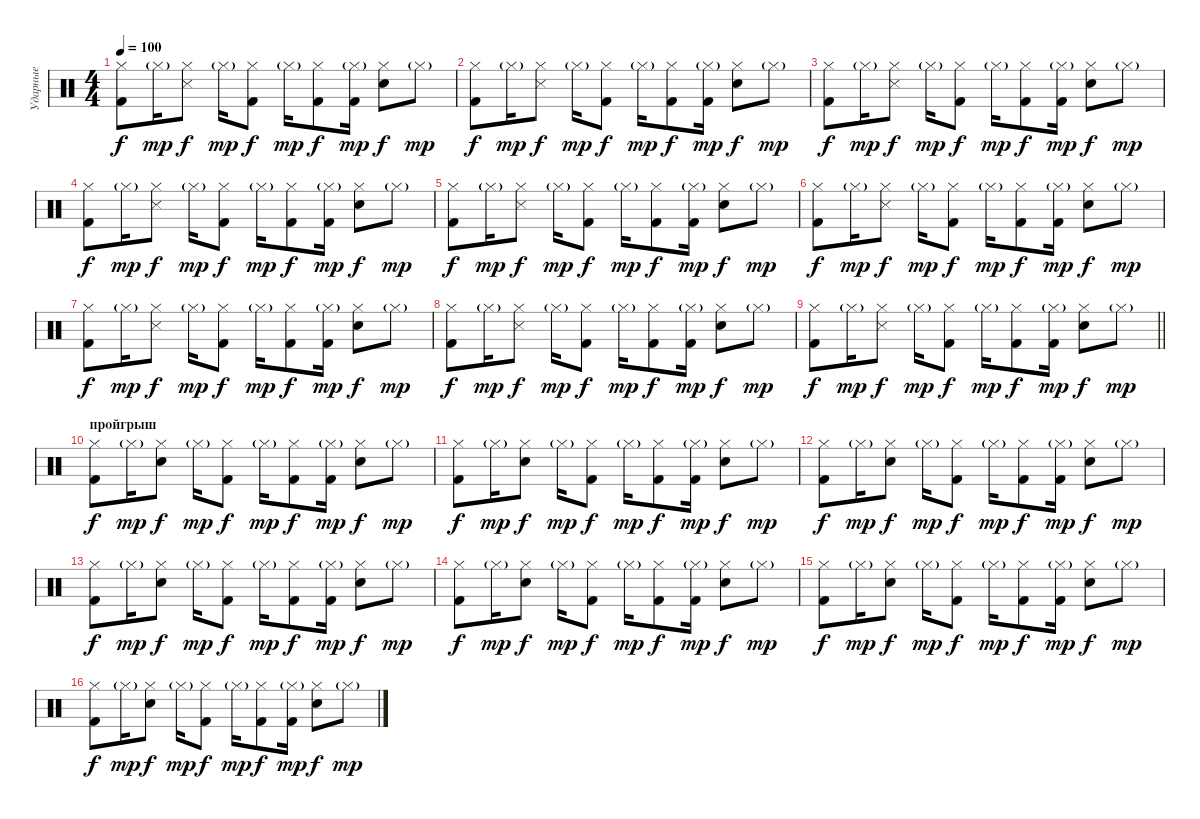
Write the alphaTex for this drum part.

\track ("Ударные" "Ударные") {instrument percussion}
\staff {score}
\articulation defaults
\ts (4 4)
\tempo 100
\clef neutral
\ks c
("Kick (hit) 2" "Hi-Hat (closed)").8{dy f} "Hi-Hat (closed)"{g}.16{dy mp} ("Snare (side stick) 3" "Hi-Hat (closed)").8{dy f} "Hi-Hat (closed)"{g}.16{dy mp} ("Kick (hit) 2" "Hi-Hat (closed)").8{dy f} "Hi-Hat (closed)"{g}.16{dy mp} ("Kick (hit) 2" "Hi-Hat (closed)").8{dy f} ("Kick (hit) 2" "Hi-Hat (closed)"{g}).16{dy mp} ("Snare (hit) 2" "Hi-Hat (closed)").8{dy f} "Hi-Hat (closed)"{g}.8{dy mp} |
("Kick (hit) 2" "Hi-Hat (closed)").8{dy f} "Hi-Hat (closed)"{g}.16{dy mp} ("Snare (side stick) 3" "Hi-Hat (closed)").8{dy f} "Hi-Hat (closed)"{g}.16{dy mp} ("Kick (hit) 2" "Hi-Hat (closed)").8{dy f} "Hi-Hat (closed)"{g}.16{dy mp} ("Kick (hit) 2" "Hi-Hat (closed)").8{dy f} ("Kick (hit) 2" "Hi-Hat (closed)"{g}).16{dy mp} ("Snare (hit) 2" "Hi-Hat (closed)").8{dy f} "Hi-Hat (closed)"{g}.8{dy mp} |
("Kick (hit) 2" "Hi-Hat (closed)").8{dy f} "Hi-Hat (closed)"{g}.16{dy mp} ("Snare (side stick) 3" "Hi-Hat (closed)").8{dy f} "Hi-Hat (closed)"{g}.16{dy mp} ("Kick (hit) 2" "Hi-Hat (closed)").8{dy f} "Hi-Hat (closed)"{g}.16{dy mp} ("Kick (hit) 2" "Hi-Hat (closed)").8{dy f} ("Kick (hit) 2" "Hi-Hat (closed)"{g}).16{dy mp} ("Snare (hit) 2" "Hi-Hat (closed)").8{dy f} "Hi-Hat (closed)"{g}.8{dy mp} |
("Kick (hit) 2" "Hi-Hat (closed)").8{dy f} "Hi-Hat (closed)"{g}.16{dy mp} ("Snare (side stick) 3" "Hi-Hat (closed)").8{dy f} "Hi-Hat (closed)"{g}.16{dy mp} ("Kick (hit) 2" "Hi-Hat (closed)").8{dy f} "Hi-Hat (closed)"{g}.16{dy mp} ("Kick (hit) 2" "Hi-Hat (closed)").8{dy f} ("Kick (hit) 2" "Hi-Hat (closed)"{g}).16{dy mp} ("Snare (hit) 2" "Hi-Hat (closed)").8{dy f} "Hi-Hat (closed)"{g}.8{dy mp} |
("Kick (hit) 2" "Hi-Hat (closed)").8{dy f} "Hi-Hat (closed)"{g}.16{dy mp} ("Snare (side stick) 3" "Hi-Hat (closed)").8{dy f} "Hi-Hat (closed)"{g}.16{dy mp} ("Kick (hit) 2" "Hi-Hat (closed)").8{dy f} "Hi-Hat (closed)"{g}.16{dy mp} ("Kick (hit) 2" "Hi-Hat (closed)").8{dy f} ("Kick (hit) 2" "Hi-Hat (closed)"{g}).16{dy mp} ("Snare (hit) 2" "Hi-Hat (closed)").8{dy f} "Hi-Hat (closed)"{g}.8{dy mp} |
("Kick (hit) 2" "Hi-Hat (closed)").8{dy f} "Hi-Hat (closed)"{g}.16{dy mp} ("Snare (side stick) 3" "Hi-Hat (closed)").8{dy f} "Hi-Hat (closed)"{g}.16{dy mp} ("Kick (hit) 2" "Hi-Hat (closed)").8{dy f} "Hi-Hat (closed)"{g}.16{dy mp} ("Kick (hit) 2" "Hi-Hat (closed)").8{dy f} ("Kick (hit) 2" "Hi-Hat (closed)"{g}).16{dy mp} ("Snare (hit) 2" "Hi-Hat (closed)").8{dy f} "Hi-Hat (closed)"{g}.8{dy mp} |
("Kick (hit) 2" "Hi-Hat (closed)").8{dy f} "Hi-Hat (closed)"{g}.16{dy mp} ("Snare (side stick) 3" "Hi-Hat (closed)").8{dy f} "Hi-Hat (closed)"{g}.16{dy mp} ("Kick (hit) 2" "Hi-Hat (closed)").8{dy f} "Hi-Hat (closed)"{g}.16{dy mp} ("Kick (hit) 2" "Hi-Hat (closed)").8{dy f} ("Kick (hit) 2" "Hi-Hat (closed)"{g}).16{dy mp} ("Snare (hit) 2" "Hi-Hat (closed)").8{dy f} "Hi-Hat (closed)"{g}.8{dy mp} |
("Kick (hit) 2" "Hi-Hat (closed)").8{dy f} "Hi-Hat (closed)"{g}.16{dy mp} ("Snare (side stick) 3" "Hi-Hat (closed)").8{dy f} "Hi-Hat (closed)"{g}.16{dy mp} ("Kick (hit) 2" "Hi-Hat (closed)").8{dy f} "Hi-Hat (closed)"{g}.16{dy mp} ("Kick (hit) 2" "Hi-Hat (closed)").8{dy f} ("Kick (hit) 2" "Hi-Hat (closed)"{g}).16{dy mp} ("Snare (hit) 2" "Hi-Hat (closed)").8{dy f} "Hi-Hat (closed)"{g}.8{dy mp} |
\barLineRight lightlight
("Kick (hit) 2" "Hi-Hat (closed)").8{dy f} "Hi-Hat (closed)"{g}.16{dy mp} ("Snare (side stick) 3" "Hi-Hat (closed)").8{dy f} "Hi-Hat (closed)"{g}.16{dy mp} ("Kick (hit) 2" "Hi-Hat (closed)").8{dy f} "Hi-Hat (closed)"{g}.16{dy mp} ("Kick (hit) 2" "Hi-Hat (closed)").8{dy f} ("Kick (hit) 2" "Hi-Hat (closed)"{g}).16{dy mp} ("Snare (hit) 2" "Hi-Hat (closed)").8{dy f} "Hi-Hat (closed)"{g}.8{dy mp} |
\section ("" "пройгрыш")
("Kick (hit) 2" "Hi-Hat (closed)").8{dy f} "Hi-Hat (closed)"{g}.16{dy mp} ("Snare (hit) 2" "Hi-Hat (closed)").8{dy f} "Hi-Hat (closed)"{g}.16{dy mp} ("Kick (hit) 2" "Hi-Hat (closed)").8{dy f} "Hi-Hat (closed)"{g}.16{dy mp} ("Kick (hit) 2" "Hi-Hat (closed)").8{dy f} ("Kick (hit) 2" "Hi-Hat (closed)"{g}).16{dy mp} ("Snare (hit) 2" "Hi-Hat (closed)").8{dy f} "Hi-Hat (closed)"{g}.8{dy mp} |
("Kick (hit) 2" "Hi-Hat (closed)").8{dy f} "Hi-Hat (closed)"{g}.16{dy mp} ("Snare (hit) 2" "Hi-Hat (closed)").8{dy f} "Hi-Hat (closed)"{g}.16{dy mp} ("Kick (hit) 2" "Hi-Hat (closed)").8{dy f} "Hi-Hat (closed)"{g}.16{dy mp} ("Kick (hit) 2" "Hi-Hat (closed)").8{dy f} ("Kick (hit) 2" "Hi-Hat (closed)"{g}).16{dy mp} ("Snare (hit) 2" "Hi-Hat (closed)").8{dy f} "Hi-Hat (closed)"{g}.8{dy mp} |
("Kick (hit) 2" "Hi-Hat (closed)").8{dy f} "Hi-Hat (closed)"{g}.16{dy mp} ("Snare (hit) 2" "Hi-Hat (closed)").8{dy f} "Hi-Hat (closed)"{g}.16{dy mp} ("Kick (hit) 2" "Hi-Hat (closed)").8{dy f} "Hi-Hat (closed)"{g}.16{dy mp} ("Kick (hit) 2" "Hi-Hat (closed)").8{dy f} ("Kick (hit) 2" "Hi-Hat (closed)"{g}).16{dy mp} ("Snare (hit) 2" "Hi-Hat (closed)").8{dy f} "Hi-Hat (closed)"{g}.8{dy mp} |
("Kick (hit) 2" "Hi-Hat (closed)").8{dy f} "Hi-Hat (closed)"{g}.16{dy mp} ("Snare (hit) 2" "Hi-Hat (closed)").8{dy f} "Hi-Hat (closed)"{g}.16{dy mp} ("Kick (hit) 2" "Hi-Hat (closed)").8{dy f} "Hi-Hat (closed)"{g}.16{dy mp} ("Kick (hit) 2" "Hi-Hat (closed)").8{dy f} ("Kick (hit) 2" "Hi-Hat (closed)"{g}).16{dy mp} ("Snare (hit) 2" "Hi-Hat (closed)").8{dy f} "Hi-Hat (closed)"{g}.8{dy mp} |
("Kick (hit) 2" "Hi-Hat (closed)").8{dy f} "Hi-Hat (closed)"{g}.16{dy mp} ("Snare (hit) 2" "Hi-Hat (closed)").8{dy f} "Hi-Hat (closed)"{g}.16{dy mp} ("Kick (hit) 2" "Hi-Hat (closed)").8{dy f} "Hi-Hat (closed)"{g}.16{dy mp} ("Kick (hit) 2" "Hi-Hat (closed)").8{dy f} ("Kick (hit) 2" "Hi-Hat (closed)"{g}).16{dy mp} ("Snare (hit) 2" "Hi-Hat (closed)").8{dy f} "Hi-Hat (closed)"{g}.8{dy mp} |
("Kick (hit) 2" "Hi-Hat (closed)").8{dy f} "Hi-Hat (closed)"{g}.16{dy mp} ("Snare (hit) 2" "Hi-Hat (closed)").8{dy f} "Hi-Hat (closed)"{g}.16{dy mp} ("Kick (hit) 2" "Hi-Hat (closed)").8{dy f} "Hi-Hat (closed)"{g}.16{dy mp} ("Kick (hit) 2" "Hi-Hat (closed)").8{dy f} ("Kick (hit) 2" "Hi-Hat (closed)"{g}).16{dy mp} ("Snare (hit) 2" "Hi-Hat (closed)").8{dy f} "Hi-Hat (closed)"{g}.8{dy mp} |
("Kick (hit) 2" "Hi-Hat (closed)").8{dy f} "Hi-Hat (closed)"{g}.16{dy mp} ("Snare (hit) 2" "Hi-Hat (closed)").8{dy f} "Hi-Hat (closed)"{g}.16{dy mp} ("Kick (hit) 2" "Hi-Hat (closed)").8{dy f} "Hi-Hat (closed)"{g}.16{dy mp} ("Kick (hit) 2" "Hi-Hat (closed)").8{dy f} ("Kick (hit) 2" "Hi-Hat (closed)"{g}).16{dy mp} ("Snare (hit) 2" "Hi-Hat (closed)").8{dy f} "Hi-Hat (closed)"{g}.8{dy mp}
